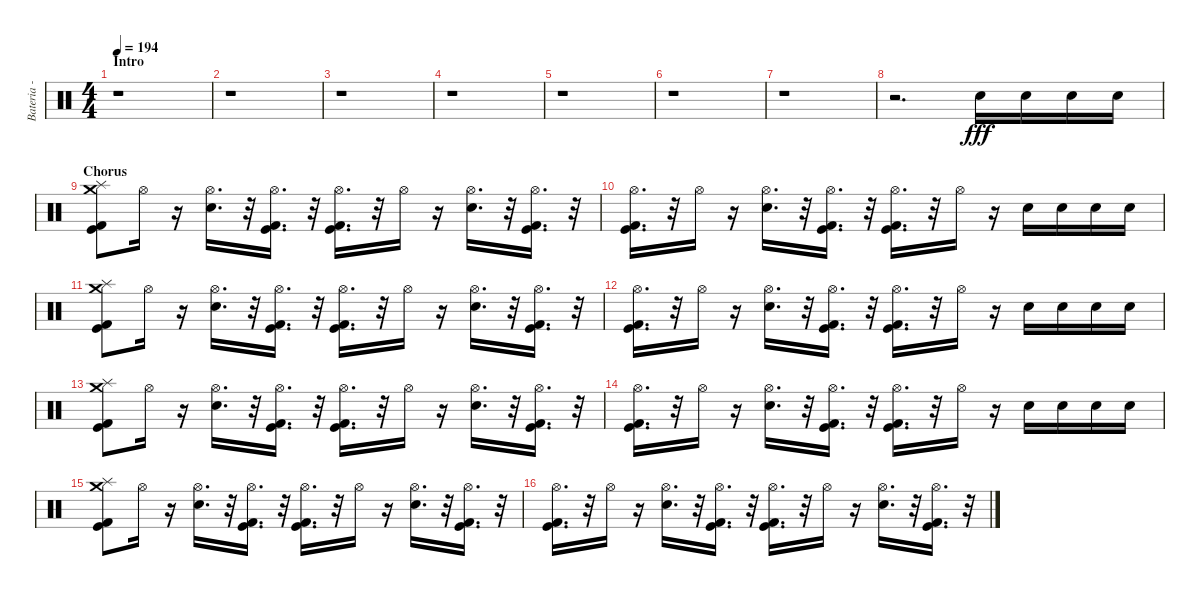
\track ("Bateria - Larzon" "Bateria - ") {instrument percussion}
\staff {score}
\articulation defaults
\ts (4 4)
\section ("" "Intro")
\tempo 194
\clef neutral
\ks c
r.1{dy fff} |
r.1 |
r.1 |
r.1 |
r.1 |
r.1 |
r.1 |
r.2{d} "Electric Snare (hit)".16 "Electric Snare (hit)".16 "Electric Snare (hit)".16 "Electric Snare (hit)".16 |
\section ("" "Chorus")
("Kick (hit) 2" "Kick (hit)" "Splash (hit)" "Crash medium (hit)").8 "Hi-Hat (open)".16 r.16 ("Electric Snare (hit)" "Hi-Hat (open)").16{d} r.32 ("Kick (hit) 2" "Kick (hit)" "Hi-Hat (open)").16{d} r.32 ("Kick (hit)" "Kick (hit) 2" "Hi-Hat (open)").16{d} r.32 "Hi-Hat (open)".16 r.16 ("Electric Snare (hit)" "Hi-Hat (open)").16{d} r.32 ("Kick (hit)" "Kick (hit) 2" "Hi-Hat (open)").16{d} r.32 |
("Kick (hit)" "Kick (hit) 2" "Hi-Hat (open)").16{d} r.32 "Hi-Hat (open)".16 r.16 ("Electric Snare (hit)" "Hi-Hat (open)").16{d} r.32 ("Hi-Hat (open)" "Kick (hit)" "Kick (hit) 2").16{d} r.32 ("Kick (hit)" "Kick (hit) 2" "Hi-Hat (open)").16{d} r.32 "Hi-Hat (open)".16 r.16 "Electric Snare (hit)".16 "Electric Snare (hit)".16 "Electric Snare (hit)".16 "Electric Snare (hit)".16 |
("Kick (hit) 2" "Kick (hit)" "Splash (hit)" "Crash medium (hit)").8 "Hi-Hat (open)".16 r.16 ("Electric Snare (hit)" "Hi-Hat (open)").16{d} r.32 ("Kick (hit) 2" "Kick (hit)" "Hi-Hat (open)").16{d} r.32 ("Kick (hit)" "Kick (hit) 2" "Hi-Hat (open)").16{d} r.32 "Hi-Hat (open)".16 r.16 ("Electric Snare (hit)" "Hi-Hat (open)").16{d} r.32 ("Kick (hit)" "Kick (hit) 2" "Hi-Hat (open)").16{d} r.32 |
("Kick (hit)" "Kick (hit) 2" "Hi-Hat (open)").16{d} r.32 "Hi-Hat (open)".16 r.16 ("Electric Snare (hit)" "Hi-Hat (open)").16{d} r.32 ("Hi-Hat (open)" "Kick (hit)" "Kick (hit) 2").16{d} r.32 ("Kick (hit)" "Kick (hit) 2" "Hi-Hat (open)").16{d} r.32 "Hi-Hat (open)".16 r.16 "Electric Snare (hit)".16 "Electric Snare (hit)".16 "Electric Snare (hit)".16 "Electric Snare (hit)".16 |
("Kick (hit) 2" "Kick (hit)" "Splash (hit)" "Crash medium (hit)").8 "Hi-Hat (open)".16 r.16 ("Electric Snare (hit)" "Hi-Hat (open)").16{d} r.32 ("Kick (hit) 2" "Kick (hit)" "Hi-Hat (open)").16{d} r.32 ("Kick (hit)" "Kick (hit) 2" "Hi-Hat (open)").16{d} r.32 "Hi-Hat (open)".16 r.16 ("Electric Snare (hit)" "Hi-Hat (open)").16{d} r.32 ("Kick (hit)" "Kick (hit) 2" "Hi-Hat (open)").16{d} r.32 |
("Kick (hit)" "Kick (hit) 2" "Hi-Hat (open)").16{d} r.32 "Hi-Hat (open)".16 r.16 ("Electric Snare (hit)" "Hi-Hat (open)").16{d} r.32 ("Hi-Hat (open)" "Kick (hit)" "Kick (hit) 2").16{d} r.32 ("Kick (hit)" "Kick (hit) 2" "Hi-Hat (open)").16{d} r.32 "Hi-Hat (open)".16 r.16 "Electric Snare (hit)".16 "Electric Snare (hit)".16 "Electric Snare (hit)".16 "Electric Snare (hit)".16 |
("Kick (hit) 2" "Kick (hit)" "Splash (hit)" "Crash medium (hit)").8 "Hi-Hat (open)".16 r.16 ("Electric Snare (hit)" "Hi-Hat (open)").16{d} r.32 ("Kick (hit) 2" "Kick (hit)" "Hi-Hat (open)").16{d} r.32 ("Kick (hit)" "Kick (hit) 2" "Hi-Hat (open)").16{d} r.32 "Hi-Hat (open)".16 r.16 ("Electric Snare (hit)" "Hi-Hat (open)").16{d} r.32 ("Kick (hit)" "Kick (hit) 2" "Hi-Hat (open)").16{d} r.32 |
("Kick (hit)" "Kick (hit) 2" "Hi-Hat (open)").16{d} r.32 "Hi-Hat (open)".16 r.16 ("Electric Snare (hit)" "Hi-Hat (open)").16{d} r.32 ("Hi-Hat (open)" "Kick (hit)" "Kick (hit) 2").16{d} r.32 ("Kick (hit)" "Kick (hit) 2" "Hi-Hat (open)").16{d} r.32 "Hi-Hat (open)".16 r.16 ("Hi-Hat (open)" "Electric Snare (hit)").16{d} r.32 ("Hi-Hat (open)" "Kick (hit)" "Kick (hit) 2").16{d} r.32
